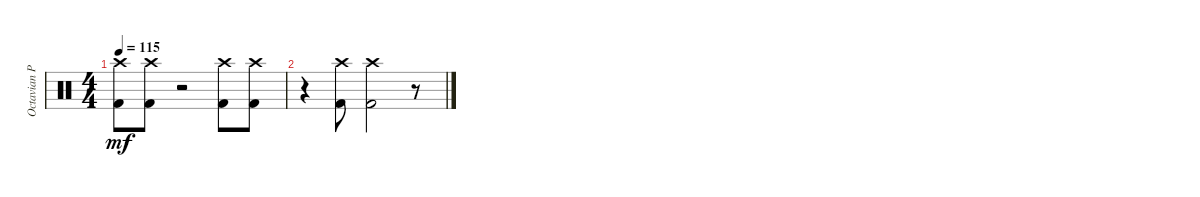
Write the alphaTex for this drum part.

\track ("Octavian Pilan" "Octavian P") {instrument percussion}
\staff {score}
\articulation defaults
\ts (4 4)
\tempo 115
\clef neutral
\ks c
("Kick (hit) 2" "Crash high (hit)").8{dy mf} ("Kick (hit) 2" "Crash high (hit)").8 r.2 ("Kick (hit) 2" "Crash high (hit)").8 ("Kick (hit) 2" "Crash high (hit)").8 |
r.4 ("Kick (hit) 2" "Crash high (hit)").8 ("Kick (hit) 2" "Crash high (hit)").2 r.8
